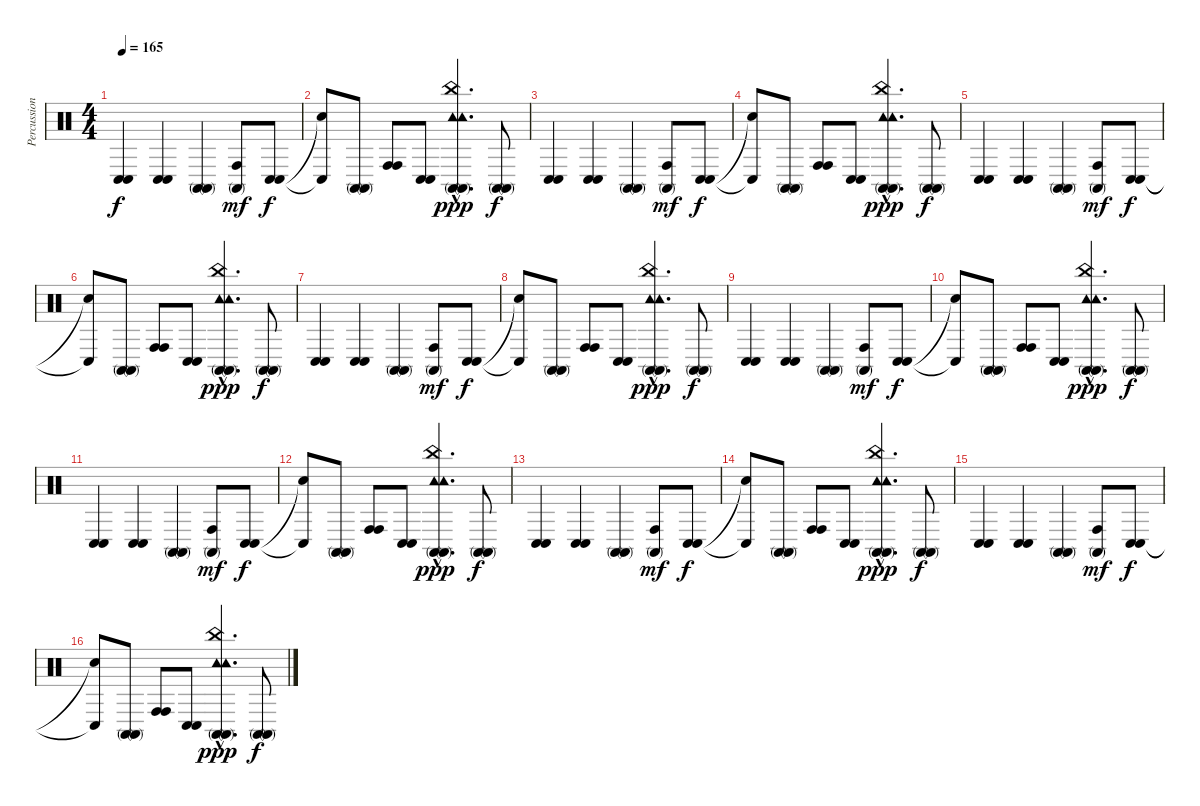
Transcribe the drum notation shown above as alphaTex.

\track ("Percussion" "Percussion") {instrument percussion}
\staff {score}
\articulation defaults
\ts (4 4)
\tempo 165
\clef neutral
\ks c
("Conga low (hit)" "Conga low (hit)").4{dy f} ("Conga low (hit)" "Conga low (hit)").4 ("Conga high (mute)" "Conga high (mute)").4 ("Conga high (hit)" "Conga high (mute)").8{dy mf} ("Conga low (hit)" "Conga low (hit)").8{dy f} |
("Conga low (hit)"{t} "Snare (hit)"{t}).8 ("Conga high (mute)" "Conga high (mute)").8 ("Conga high (hit)" "Conga high (hit)").8 ("Conga low (hit)" "Conga low (hit)").8 ("Conga high (mute)"{hac} "Conga high (mute)"{hac} "Tambourine (hit)"{hac} "Tambourine (hit)"{hac} "China (hit)"{hac}).4{d dy ppp} ("Conga high (mute)" "Conga high (mute)").8{dy f} |
("Conga low (hit)" "Conga low (hit)").4 ("Conga low (hit)" "Conga low (hit)").4 ("Conga high (mute)" "Conga high (mute)").4 ("Conga high (hit)" "Conga high (mute)").8{dy mf} ("Conga low (hit)" "Conga low (hit)").8{dy f} |
("Conga low (hit)"{t} "Snare (hit)"{t}).8 ("Conga high (mute)" "Conga high (mute)").8 ("Conga high (hit)" "Conga high (hit)").8 ("Conga low (hit)" "Conga low (hit)").8 ("Conga high (mute)"{hac} "Conga high (mute)"{hac} "Tambourine (hit)"{hac} "Tambourine (hit)"{hac} "China (hit)"{hac}).4{d dy ppp} ("Conga high (mute)" "Conga high (mute)").8{dy f} |
("Conga low (hit)" "Conga low (hit)").4 ("Conga low (hit)" "Conga low (hit)").4 ("Conga high (mute)" "Conga high (mute)").4 ("Conga high (hit)" "Conga high (mute)").8{dy mf} ("Conga low (hit)" "Conga low (hit)").8{dy f} |
("Conga low (hit)"{t} "Snare (hit)"{t}).8 ("Conga high (mute)" "Conga high (mute)").8 ("Conga high (hit)" "Conga high (hit)").8 ("Conga low (hit)" "Conga low (hit)").8 ("Conga high (mute)"{hac} "Conga high (mute)"{hac} "Tambourine (hit)"{hac} "Tambourine (hit)"{hac} "China (hit)"{hac}).4{d dy ppp} ("Conga high (mute)" "Conga high (mute)").8{dy f} |
("Conga low (hit)" "Conga low (hit)").4 ("Conga low (hit)" "Conga low (hit)").4 ("Conga high (mute)" "Conga high (mute)").4 ("Conga high (hit)" "Conga high (mute)").8{dy mf} ("Conga low (hit)" "Conga low (hit)").8{dy f} |
("Conga low (hit)"{t} "Snare (hit)"{t}).8 ("Conga high (mute)" "Conga high (mute)").8 ("Conga high (hit)" "Conga high (hit)").8 ("Conga low (hit)" "Conga low (hit)").8 ("Conga high (mute)"{hac} "Conga high (mute)"{hac} "Tambourine (hit)"{hac} "Tambourine (hit)"{hac} "China (hit)"{hac}).4{d dy ppp} ("Conga high (mute)" "Conga high (mute)").8{dy f} |
("Conga low (hit)" "Conga low (hit)").4 ("Conga low (hit)" "Conga low (hit)").4 ("Conga high (mute)" "Conga high (mute)").4 ("Conga high (hit)" "Conga high (mute)").8{dy mf} ("Conga low (hit)" "Conga low (hit)").8{dy f} |
("Conga low (hit)"{t} "Snare (hit)"{t}).8 ("Conga high (mute)" "Conga high (mute)").8 ("Conga high (hit)" "Conga high (hit)").8 ("Conga low (hit)" "Conga low (hit)").8 ("Conga high (mute)"{hac} "Conga high (mute)"{hac} "Tambourine (hit)"{hac} "Tambourine (hit)"{hac} "China (hit)"{hac}).4{d dy ppp} ("Conga high (mute)" "Conga high (mute)").8{dy f} |
("Conga low (hit)" "Conga low (hit)").4 ("Conga low (hit)" "Conga low (hit)").4 ("Conga high (mute)" "Conga high (mute)").4 ("Conga high (hit)" "Conga high (mute)").8{dy mf} ("Conga low (hit)" "Conga low (hit)").8{dy f} |
("Conga low (hit)"{t} "Snare (hit)"{t}).8 ("Conga high (mute)" "Conga high (mute)").8 ("Conga high (hit)" "Conga high (hit)").8 ("Conga low (hit)" "Conga low (hit)").8 ("Conga high (mute)"{hac} "Conga high (mute)"{hac} "Tambourine (hit)"{hac} "Tambourine (hit)"{hac} "China (hit)"{hac}).4{d dy ppp} ("Conga high (mute)" "Conga high (mute)").8{dy f} |
("Conga low (hit)" "Conga low (hit)").4{volume 12} ("Conga low (hit)" "Conga low (hit)").4 ("Conga high (mute)" "Conga high (mute)").4 ("Conga high (hit)" "Conga high (mute)").8{dy mf} ("Conga low (hit)" "Conga low (hit)").8{dy f} |
("Conga low (hit)"{t} "Snare (hit)"{t}).8 ("Conga high (mute)" "Conga high (mute)").8 ("Conga high (hit)" "Conga high (hit)").8 ("Conga low (hit)" "Conga low (hit)").8 ("Conga high (mute)"{hac} "Conga high (mute)"{hac} "Tambourine (hit)"{hac} "Tambourine (hit)"{hac} "China (hit)"{hac}).4{d dy ppp} ("Conga high (mute)" "Conga high (mute)").8{dy f} |
("Conga low (hit)" "Conga low (hit)").4 ("Conga low (hit)" "Conga low (hit)").4 ("Conga high (mute)" "Conga high (mute)").4 ("Conga high (hit)" "Conga high (mute)").8{dy mf} ("Conga low (hit)" "Conga low (hit)").8{dy f} |
("Conga low (hit)"{t} "Snare (hit)"{t}).8 ("Conga high (mute)" "Conga high (mute)").8 ("Conga high (hit)" "Conga high (hit)").8 ("Conga low (hit)" "Conga low (hit)").8 ("Conga high (mute)"{hac} "Conga high (mute)"{hac} "Tambourine (hit)"{hac} "Tambourine (hit)"{hac} "China (hit)"{hac}).4{d dy ppp} ("Conga high (mute)" "Conga high (mute)").8{dy f}
